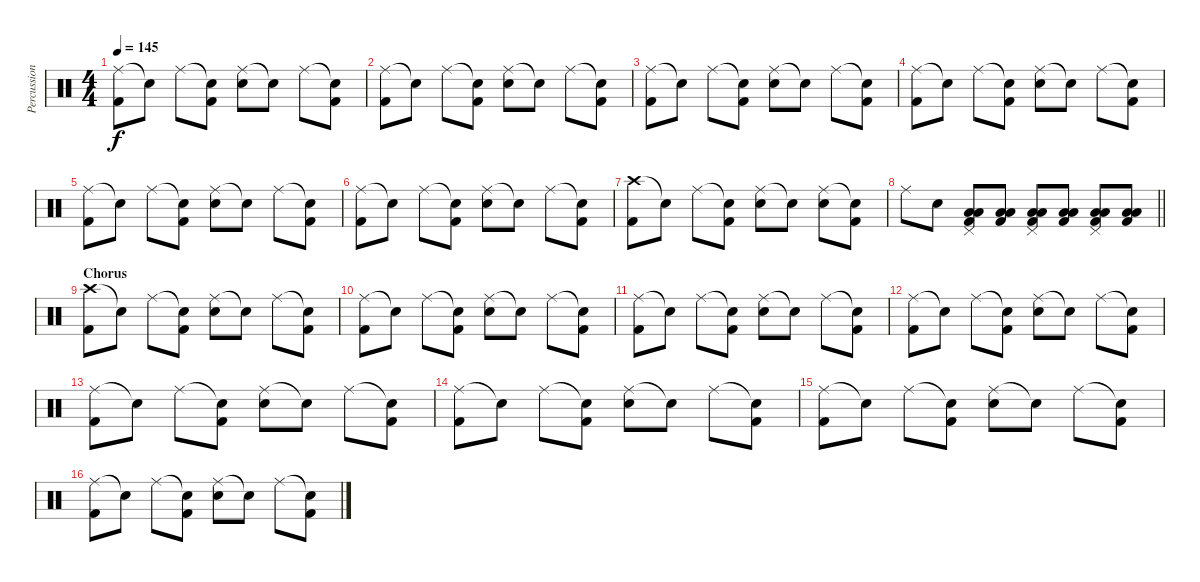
\track ("Percussion" "Percussion") {instrument percussion}
\staff {score}
\articulation defaults
\ts (4 4)
\tempo 145
\clef neutral
\ks c
("Ride (middle)" "Kick (hit) 2").8{dy f} "Snare (hit)"{t}.8 "Ride (middle)".8 ("Snare (hit)"{t} "Kick (hit) 2").8 ("Ride (middle)" "Electric Snare (hit)").8 "Snare (hit)"{t}.8 "Ride (middle)".8 ("Snare (hit)"{t} "Kick (hit) 2").8 |
("Ride (middle)" "Kick (hit) 2").8 "Snare (hit)"{t}.8 "Ride (middle)".8 ("Snare (hit)"{t} "Kick (hit) 2").8 ("Ride (middle)" "Electric Snare (hit)").8 "Snare (hit)"{t}.8 "Ride (middle)".8 ("Snare (hit)"{t} "Kick (hit) 2").8 |
("Ride (middle)" "Kick (hit) 2").8 "Snare (hit)"{t}.8 "Ride (middle)".8 ("Snare (hit)"{t} "Kick (hit) 2").8 ("Ride (middle)" "Electric Snare (hit)").8 "Snare (hit)"{t}.8 "Ride (middle)".8 ("Snare (hit)"{t} "Kick (hit) 2").8 |
("Ride (middle)" "Kick (hit) 2").8 "Snare (hit)"{t}.8 "Ride (middle)".8 ("Snare (hit)"{t} "Kick (hit) 2").8 ("Ride (middle)" "Electric Snare (hit)").8 "Snare (hit)"{t}.8 "Ride (middle)".8 ("Snare (hit)"{t} "Kick (hit) 2").8 |
("Ride (middle)" "Kick (hit) 2").8 "Snare (hit)"{t}.8 "Ride (middle)".8 ("Snare (hit)"{t} "Kick (hit) 2").8 ("Ride (middle)" "Electric Snare (hit)").8 "Snare (hit)"{t}.8 "Ride (middle)".8 ("Snare (hit)"{t} "Kick (hit) 2").8 |
("Ride (middle)" "Kick (hit) 2").8 "Snare (hit)"{t}.8 "Ride (middle)".8 ("Snare (hit)"{t} "Kick (hit) 2").8 ("Ride (middle)" "Electric Snare (hit)").8 "Snare (hit)"{t}.8 "Ride (middle)".8 ("Snare (hit)"{t} "Kick (hit) 2").8 |
("Crash high (hit)" "Kick (hit) 2").8 "Snare (hit)"{t}.8 "Ride (middle)".8 ("Snare (hit)"{t} "Kick (hit) 2").8 ("Ride (middle)" "Electric Snare (hit)").8 "Snare (hit)"{t}.8 ("Ride (middle)" "Electric Snare (hit)").8 ("Snare (hit)"{t} "Kick (hit) 2").8 |
\barLineRight lightlight "Ride (middle)".8 "Electric Snare (hit)".8
("Pedal Hi-Hat (hit)" "Low Tom (hit)" "Low Floor Tom (hit)" "Kick (hit) 2").8 ("Low Tom (hit)" "Low Floor Tom (hit)" "Kick (hit) 2").8 ("Pedal Hi-Hat (hit)" "Low Tom (hit)" "Low Floor Tom (hit)" "Kick (hit) 2").8 ("Low Tom (hit)" "Low Floor Tom (hit)" "Kick (hit) 2").8 ("Pedal Hi-Hat (hit)" "Low Tom (hit)" "Low Floor Tom (hit)" "Kick (hit) 2").8 ("Low Tom (hit)" "Low Floor Tom (hit)" "Kick (hit) 2").8 |
\section ("" "Chorus")
("Crash high (hit)" "Kick (hit) 2").8 "Snare (hit)"{t}.8 "Ride (middle)".8 ("Snare (hit)"{t} "Kick (hit) 2").8 ("Ride (middle)" "Electric Snare (hit)").8 "Snare (hit)"{t}.8 "Ride (middle)".8 ("Snare (hit)"{t} "Kick (hit) 2").8 |
("Ride (middle)" "Kick (hit) 2").8 "Snare (hit)"{t}.8 "Ride (middle)".8 ("Snare (hit)"{t} "Kick (hit) 2").8 ("Ride (middle)" "Electric Snare (hit)").8 "Snare (hit)"{t}.8 "Ride (middle)".8 ("Snare (hit)"{t} "Kick (hit) 2").8 |
("Ride (middle)" "Kick (hit) 2").8 "Snare (hit)"{t}.8 "Ride (middle)".8 ("Snare (hit)"{t} "Kick (hit) 2").8 ("Ride (middle)" "Electric Snare (hit)").8 "Snare (hit)"{t}.8 "Ride (middle)".8 ("Snare (hit)"{t} "Kick (hit) 2").8 |
("Ride (middle)" "Kick (hit) 2").8 "Snare (hit)"{t}.8 "Ride (middle)".8 ("Snare (hit)"{t} "Kick (hit) 2").8 ("Ride (middle)" "Electric Snare (hit)").8 "Snare (hit)"{t}.8 "Ride (middle)".8 ("Snare (hit)"{t} "Kick (hit) 2").8 |
("Ride (middle)" "Kick (hit) 2").8 "Snare (hit)"{t}.8 "Ride (middle)".8 ("Snare (hit)"{t} "Kick (hit) 2").8 ("Ride (middle)" "Electric Snare (hit)").8 "Snare (hit)"{t}.8 "Ride (middle)".8 ("Snare (hit)"{t} "Kick (hit) 2").8 |
("Ride (middle)" "Kick (hit) 2").8 "Snare (hit)"{t}.8 "Ride (middle)".8 ("Snare (hit)"{t} "Kick (hit) 2").8 ("Ride (middle)" "Electric Snare (hit)").8 "Snare (hit)"{t}.8 "Ride (middle)".8 ("Snare (hit)"{t} "Kick (hit) 2").8 |
("Ride (middle)" "Kick (hit) 2").8 "Snare (hit)"{t}.8 "Ride (middle)".8 ("Snare (hit)"{t} "Kick (hit) 2").8 ("Ride (middle)" "Electric Snare (hit)").8 "Snare (hit)"{t}.8 "Ride (middle)".8 ("Snare (hit)"{t} "Kick (hit) 2").8 |
("Ride (middle)" "Kick (hit) 2").8 "Snare (hit)"{t}.8 "Ride (middle)".8 ("Snare (hit)"{t} "Kick (hit) 2").8 ("Ride (middle)" "Electric Snare (hit)").8 "Snare (hit)"{t}.8 "Ride (middle)".8 ("Snare (hit)"{t} "Kick (hit) 2").8
